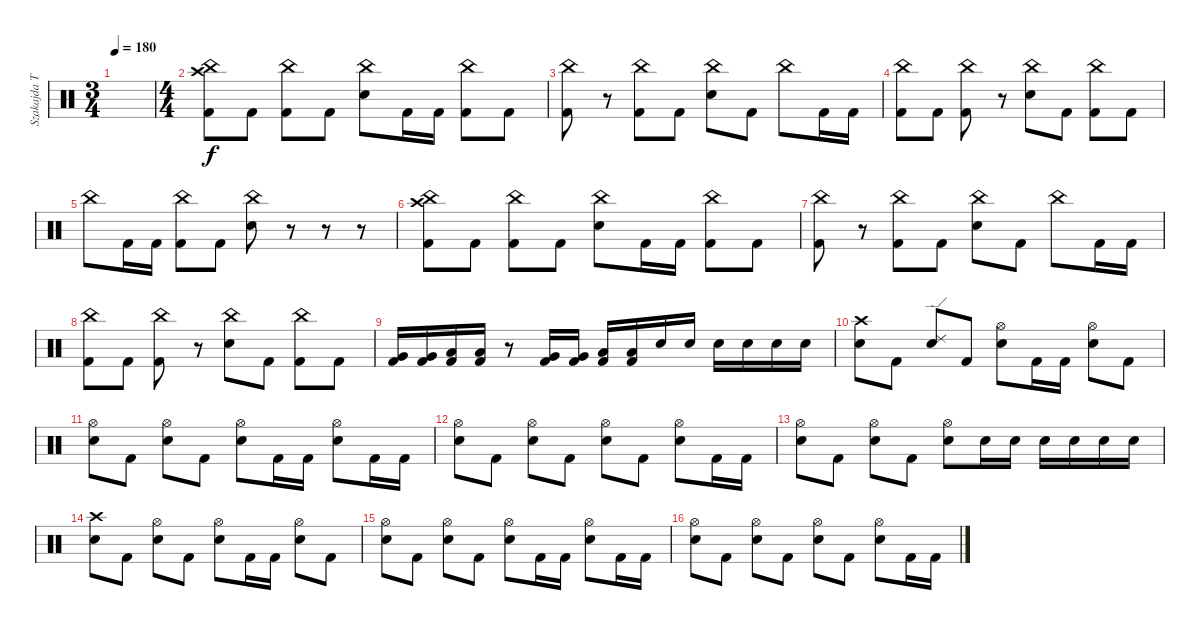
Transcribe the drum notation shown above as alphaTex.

\track ("Szakajda Tibi" "Szakajda T") {instrument percussion}
\staff {score}
\articulation defaults
\ts (3 4)
\tempo 180
\clef neutral
\ks c
|
\ts (4 4)
("China (hit)" "Crash high (hit)" "Kick (hit) 2").8 "Kick (hit) 2".8 ("China (hit)" "Kick (hit) 2").8 "Kick (hit) 2".8 ("China (hit)" "Electric Snare (hit)").8 "Kick (hit) 2".16 "Kick (hit) 2".16 ("China (hit)" "Kick (hit) 2").8 "Kick (hit) 2".8 |
("China (hit)" "Kick (hit) 2").8 r.8 ("China (hit)" "Kick (hit) 2").8 "Kick (hit) 2".8 ("China (hit)" "Electric Snare (hit)").8 "Kick (hit) 2".8 "China (hit)".8 "Kick (hit) 2".16 "Kick (hit) 2".16 |
("China (hit)" "Kick (hit) 2").8 "Kick (hit) 2".8 ("China (hit)" "Kick (hit) 2").8 r.8 ("China (hit)" "Electric Snare (hit)").8 "Kick (hit) 2".8 ("China (hit)" "Kick (hit) 2").8 "Kick (hit) 2".8 |
"China (hit)".8 "Kick (hit) 2".16 "Kick (hit) 2".16 ("China (hit)" "Kick (hit) 2").8 "Kick (hit) 2".8 ("China (hit)" "Electric Snare (hit)").8 r.8 r.8 r.8 |
("China (hit)" "Crash high (hit)" "Kick (hit) 2").8 "Kick (hit) 2".8 ("China (hit)" "Kick (hit) 2").8 "Kick (hit) 2".8 ("China (hit)" "Electric Snare (hit)").8 "Kick (hit) 2".16 "Kick (hit) 2".16 ("China (hit)" "Kick (hit) 2").8 "Kick (hit) 2".8 |
("China (hit)" "Kick (hit) 2").8 r.8 ("China (hit)" "Kick (hit) 2").8 "Kick (hit) 2".8 ("China (hit)" "Electric Snare (hit)").8 "Kick (hit) 2".8 "China (hit)".8 "Kick (hit) 2".16 "Kick (hit) 2".16 |
("China (hit)" "Kick (hit) 2").8 "Kick (hit) 2".8 ("China (hit)" "Kick (hit) 2").8 r.8 ("China (hit)" "Electric Snare (hit)").8 "Kick (hit) 2".8 ("China (hit)" "Kick (hit) 2").8 "Kick (hit) 2".8 |
("Very Low Tom (hit)" "Kick (hit) 2").16 ("Very Low Tom (hit)" "Kick (hit) 2").16 ("Low Tom (hit)" "Kick (hit) 2").16 ("Low Tom (hit)" "Kick (hit) 2").16 r.8 ("Very Low Tom (hit)" "Kick (hit) 2").16 ("Very Low Tom (hit)" "Kick (hit) 2").16 ("Low Tom (hit)" "Kick (hit) 2").16 ("Low Tom (hit)" "Kick (hit) 2").16 "Electric Snare (hit)".16 "Electric Snare (hit)".16 "Electric Snare (hit)".16 "Electric Snare (hit)".16 "Electric Snare (hit)".16 "Electric Snare (hit)".16 |
("Crash high (hit)" "Electric Snare (hit)").8 "Kick (hit) 2".8 ("Ride (edge) 2" "Electric Snare (hit)").8 "Kick (hit) 2".8 ("Hi-Hat (open)" "Electric Snare (hit)").8 "Kick (hit) 2".16 "Kick (hit) 2".16 ("Hi-Hat (open)" "Electric Snare (hit)").8 "Kick (hit) 2".8 |
("Hi-Hat (open)" "Electric Snare (hit)").8 "Kick (hit) 2".8 ("Hi-Hat (open)" "Electric Snare (hit)").8 "Kick (hit) 2".8 ("Hi-Hat (open)" "Electric Snare (hit)").8 "Kick (hit) 2".16 "Kick (hit) 2".16 ("Hi-Hat (open)" "Electric Snare (hit)").8 "Kick (hit) 2".16 "Kick (hit) 2".16 |
("Hi-Hat (open)" "Electric Snare (hit)").8 "Kick (hit) 2".8 ("Hi-Hat (open)" "Electric Snare (hit)").8 "Kick (hit) 2".8 ("Hi-Hat (open)" "Electric Snare (hit)").8 "Kick (hit) 2".8 ("Hi-Hat (open)" "Electric Snare (hit)").8 "Kick (hit) 2".16 "Kick (hit) 2".16 |
("Hi-Hat (open)" "Electric Snare (hit)").8 "Kick (hit) 2".8 ("Hi-Hat (open)" "Electric Snare (hit)").8 "Kick (hit) 2".8 ("Hi-Hat (open)" "Electric Snare (hit)").8 "Electric Snare (hit)".16 "Electric Snare (hit)".16 "Electric Snare (hit)".16 "Electric Snare (hit)".16 "Electric Snare (hit)".16 "Electric Snare (hit)".16 |
("Crash high (hit)" "Electric Snare (hit)").8 "Kick (hit) 2".8 ("Hi-Hat (open)" "Electric Snare (hit)").8 "Kick (hit) 2".8 ("Hi-Hat (open)" "Electric Snare (hit)").8 "Kick (hit) 2".16 "Kick (hit) 2".16 ("Hi-Hat (open)" "Electric Snare (hit)").8 "Kick (hit) 2".8 |
("Hi-Hat (open)" "Electric Snare (hit)").8 "Kick (hit) 2".8 ("Hi-Hat (open)" "Electric Snare (hit)").8 "Kick (hit) 2".8 ("Hi-Hat (open)" "Electric Snare (hit)").8 "Kick (hit) 2".16 "Kick (hit) 2".16 ("Hi-Hat (open)" "Electric Snare (hit)").8 "Kick (hit) 2".16 "Kick (hit) 2".16 |
("Hi-Hat (open)" "Electric Snare (hit)").8 "Kick (hit) 2".8 ("Hi-Hat (open)" "Electric Snare (hit)").8 "Kick (hit) 2".8 ("Hi-Hat (open)" "Electric Snare (hit)").8 "Kick (hit) 2".8 ("Hi-Hat (open)" "Electric Snare (hit)").8 "Kick (hit) 2".16 "Kick (hit) 2".16
